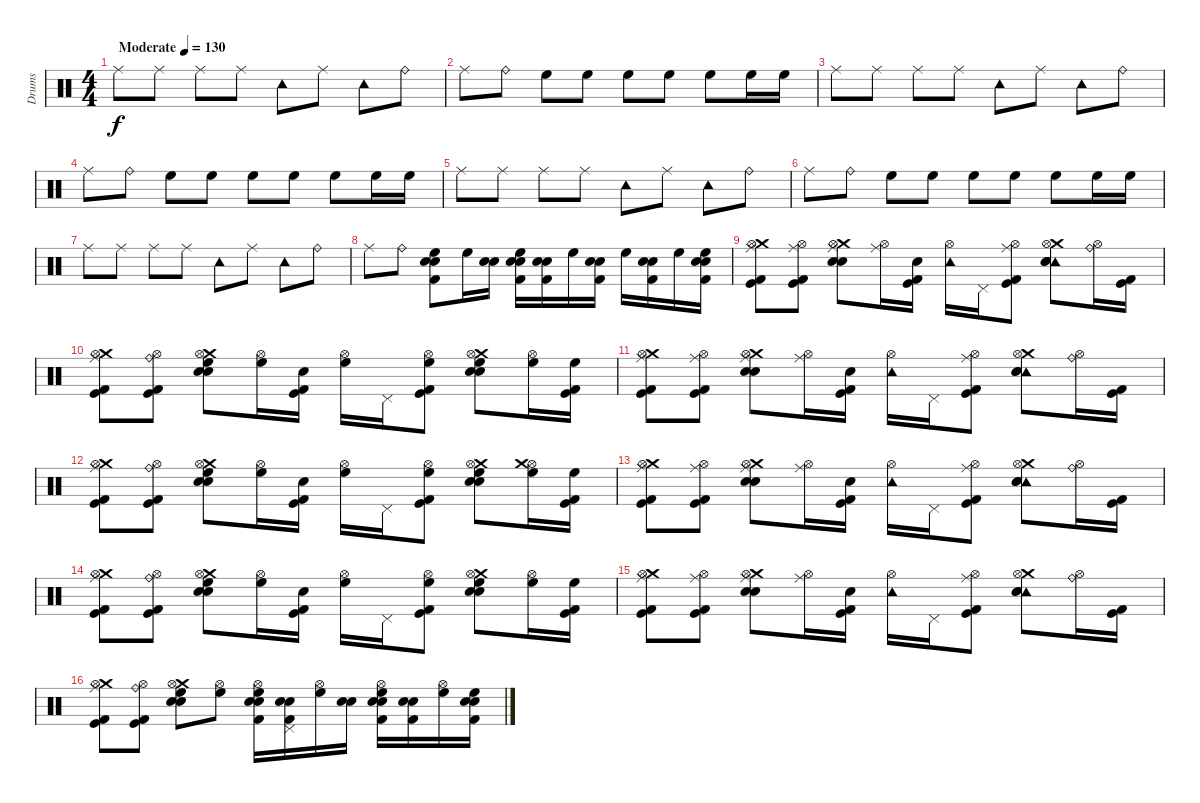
\track ("Drums" "Drums") {instrument percussion}
\staff {score}
\articulation defaults
\ts (4 4)
\tempo (130 "Moderate")
\clef neutral
\ks c "Ride (middle)".8{dy f} "Ride (middle)".8 "Ride (middle)".8 "Ride (middle)".8 "Tambourine (hit)".8 "Ride (middle)".8 "Tambourine (hit)".8 "Ride (bell)".8
|
"Ride (middle)".8 "Ride (bell)".8 "High Floor Tom (hit)".8 "High Floor Tom (hit)".8 "High Floor Tom (hit)".8 "High Floor Tom (hit)".8 "High Floor Tom (hit)".8 "High Floor Tom (hit)".16 "High Floor Tom (hit)".16 |
"Ride (middle)".8 "Ride (middle)".8 "Ride (middle)".8 "Ride (middle)".8 "Tambourine (hit)".8 "Ride (middle)".8 "Tambourine (hit)".8 "Ride (bell)".8 |
"Ride (middle)".8 "Ride (bell)".8 "High Floor Tom (hit)".8 "High Floor Tom (hit)".8 "High Floor Tom (hit)".8 "High Floor Tom (hit)".8 "High Floor Tom (hit)".8 "High Floor Tom (hit)".16 "High Floor Tom (hit)".16 |
"Ride (middle)".8 "Ride (middle)".8 "Ride (middle)".8 "Ride (middle)".8 "Tambourine (hit)".8 "Ride (middle)".8 "Tambourine (hit)".8 "Ride (bell)".8 |
"Ride (middle)".8 "Ride (bell)".8 "High Floor Tom (hit)".8 "High Floor Tom (hit)".8 "High Floor Tom (hit)".8 "High Floor Tom (hit)".8 "High Floor Tom (hit)".8 "High Floor Tom (hit)".16 "High Floor Tom (hit)".16 |
"Ride (middle)".8 "Ride (middle)".8 "Ride (middle)".8 "Ride (middle)".8 "Tambourine (hit)".8 "Ride (middle)".8 "Tambourine (hit)".8 "Ride (bell)".8 |
"Ride (middle)".8 "Ride (bell)".8 ("High Floor Tom (hit)" "Electric Snare (hit)" "Snare (hit) 2" "Kick (hit) 2").8 "High Floor Tom (hit)".16 ("Electric Snare (hit)" "Electric Snare (hit)").16 ("High Floor Tom (hit)" "Snare (hit) 2" "Electric Snare (hit)" "Kick (hit) 2").16 ("Electric Snare (hit)" "Snare (hit) 2" "Kick (hit) 2").16 "High Floor Tom (hit)".16 ("Electric Snare (hit)" "Snare (hit) 2" "Kick (hit) 2").16 "High Floor Tom (hit)".16 ("Electric Snare (hit)" "Snare (hit) 2" "Kick (hit) 2").16 "High Floor Tom (hit)".16 ("High Floor Tom (hit)" "Electric Snare (hit)" "Snare (hit) 2" "Kick (hit) 2").16 |
("Ride (middle)" "Kick (hit) 2" "Kick (hit)" "Crash medium (hit)" "Hi-Hat (open)").8 ("Ride (middle)" "Kick (hit) 2" "Kick (hit)" "Hi-Hat (open)").8 ("Ride (middle)" "Snare (hit) 2" "Electric Snare (hit)" "Crash medium (hit)" "Hi-Hat (open)").8 ("Ride (middle)" "Hi-Hat (open)").16 ("Kick (hit) 2" "Kick (hit)" "Electric Snare (hit)").16 ("Tambourine (hit)" "Hi-Hat (open)").16 "Pedal Hi-Hat (hit)".16 ("Ride (middle)" "Kick (hit) 2" "Kick (hit)" "Hi-Hat (open)").8 ("Tambourine (hit)" "Snare (hit) 2" "Electric Snare (hit)" "Crash medium (hit)" "Hi-Hat (open)").8 ("Ride (bell)" "Hi-Hat (open)").16 ("Kick (hit) 2" "Kick (hit)").16 |
("Ride (middle)" "Kick (hit) 2" "Kick (hit)" "Crash medium (hit)" "Hi-Hat (open)").8 ("Ride (bell)" "Kick (hit) 2" "Kick (hit)" "Hi-Hat (open)").8 ("High Floor Tom (hit)" "Snare (hit) 2" "Electric Snare (hit)" "Crash medium (hit)" "Hi-Hat (open)").8 ("High Floor Tom (hit)" "Hi-Hat (open)").16 ("Kick (hit) 2" "Kick (hit)" "Electric Snare (hit)").16 ("High Floor Tom (hit)" "Hi-Hat (open)").16 "Pedal Hi-Hat (hit)".16 ("High Floor Tom (hit)" "Kick (hit) 2" "Kick (hit)" "Hi-Hat (open)").8 ("High Floor Tom (hit)" "Snare (hit) 2" "Electric Snare (hit)" "Crash medium (hit)" "Hi-Hat (open)").8 ("High Floor Tom (hit)" "Hi-Hat (open)").16 ("High Floor Tom (hit)" "Kick (hit) 2" "Kick (hit)").16 |
("Ride (middle)" "Kick (hit) 2" "Kick (hit)" "Crash medium (hit)" "Hi-Hat (open)").8 ("Ride (middle)" "Kick (hit) 2" "Kick (hit)" "Hi-Hat (open)").8 ("Ride (middle)" "Snare (hit) 2" "Electric Snare (hit)" "Crash medium (hit)" "Hi-Hat (open)").8 ("Ride (middle)" "Hi-Hat (open)").16 ("Kick (hit) 2" "Kick (hit)" "Electric Snare (hit)").16 ("Tambourine (hit)" "Hi-Hat (open)").16 "Pedal Hi-Hat (hit)".16 ("Ride (middle)" "Kick (hit) 2" "Kick (hit)" "Hi-Hat (open)").8 ("Tambourine (hit)" "Snare (hit) 2" "Electric Snare (hit)" "Crash medium (hit)" "Hi-Hat (open)").8 ("Ride (bell)" "Hi-Hat (open)").16 ("Kick (hit) 2" "Kick (hit)").16 |
("Ride (middle)" "Kick (hit) 2" "Kick (hit)" "Crash medium (hit)" "Hi-Hat (open)").8 ("Ride (bell)" "Kick (hit) 2" "Kick (hit)" "Hi-Hat (open)").8 ("High Floor Tom (hit)" "Snare (hit) 2" "Electric Snare (hit)" "Crash medium (hit)" "Hi-Hat (open)").8 ("High Floor Tom (hit)" "Hi-Hat (open)").16 ("Kick (hit) 2" "Kick (hit)" "Electric Snare (hit)").16 ("High Floor Tom (hit)" "Hi-Hat (open)").16 "Pedal Hi-Hat (hit)".16 ("High Floor Tom (hit)" "Kick (hit) 2" "Kick (hit)" "Hi-Hat (open)").8 ("High Floor Tom (hit)" "Snare (hit) 2" "Electric Snare (hit)" "Crash medium (hit)" "Hi-Hat (open)").8 ("High Floor Tom (hit)" "Hi-Hat (open)" "Crash medium (hit)").16 ("High Floor Tom (hit)" "Kick (hit) 2" "Kick (hit)").16 |
("Ride (middle)" "Kick (hit) 2" "Kick (hit)" "Crash medium (hit)" "Hi-Hat (open)").8 ("Ride (middle)" "Kick (hit) 2" "Kick (hit)" "Hi-Hat (open)").8 ("Ride (middle)" "Snare (hit) 2" "Electric Snare (hit)" "Crash medium (hit)" "Hi-Hat (open)").8 ("Ride (middle)" "Hi-Hat (open)").16 ("Kick (hit) 2" "Kick (hit)" "Electric Snare (hit)").16 ("Tambourine (hit)" "Hi-Hat (open)").16 "Pedal Hi-Hat (hit)".16 ("Ride (middle)" "Kick (hit) 2" "Kick (hit)" "Hi-Hat (open)").8 ("Tambourine (hit)" "Snare (hit) 2" "Electric Snare (hit)" "Crash medium (hit)" "Hi-Hat (open)").8 ("Ride (bell)" "Hi-Hat (open)").16 ("Kick (hit) 2" "Kick (hit)").16 |
("Ride (middle)" "Kick (hit) 2" "Kick (hit)" "Crash medium (hit)" "Hi-Hat (open)").8 ("Ride (bell)" "Kick (hit) 2" "Kick (hit)" "Hi-Hat (open)").8 ("High Floor Tom (hit)" "Snare (hit) 2" "Electric Snare (hit)" "Crash medium (hit)" "Hi-Hat (open)").8 ("High Floor Tom (hit)" "Hi-Hat (open)").16 ("Kick (hit) 2" "Kick (hit)" "Electric Snare (hit)").16 ("High Floor Tom (hit)" "Hi-Hat (open)").16 "Pedal Hi-Hat (hit)".16 ("High Floor Tom (hit)" "Kick (hit) 2" "Kick (hit)" "Hi-Hat (open)").8 ("High Floor Tom (hit)" "Snare (hit) 2" "Electric Snare (hit)" "Crash medium (hit)" "Hi-Hat (open)").8 ("High Floor Tom (hit)" "Hi-Hat (open)").16 ("High Floor Tom (hit)" "Kick (hit) 2" "Kick (hit)").16 |
("Ride (middle)" "Kick (hit) 2" "Kick (hit)" "Crash medium (hit)" "Hi-Hat (open)").8 ("Ride (middle)" "Kick (hit) 2" "Kick (hit)" "Hi-Hat (open)").8 ("Ride (middle)" "Snare (hit) 2" "Electric Snare (hit)" "Crash medium (hit)" "Hi-Hat (open)").8 ("Ride (middle)" "Hi-Hat (open)").16 ("Kick (hit) 2" "Kick (hit)" "Electric Snare (hit)").16 ("Tambourine (hit)" "Hi-Hat (open)").16 "Pedal Hi-Hat (hit)".16 ("Ride (middle)" "Kick (hit) 2" "Kick (hit)" "Hi-Hat (open)").8 ("Tambourine (hit)" "Snare (hit) 2" "Electric Snare (hit)" "Crash medium (hit)" "Hi-Hat (open)").8 ("Ride (bell)" "Hi-Hat (open)").16 ("Kick (hit) 2" "Kick (hit)").16 |
("Ride (middle)" "Kick (hit) 2" "Kick (hit)" "Crash medium (hit)" "Hi-Hat (open)").8 ("Ride (bell)" "Kick (hit) 2" "Kick (hit)" "Hi-Hat (open)").8 ("High Floor Tom (hit)" "Snare (hit) 2" "Electric Snare (hit)" "Crash medium (hit)" "Hi-Hat (open)").8 ("High Floor Tom (hit)" "Hi-Hat (open)").8 ("High Floor Tom (hit)" "Hi-Hat (open)" "Electric Snare (hit)" "Snare (hit) 2" "Kick (hit) 2").16 ("Electric Snare (hit)" "Snare (hit) 2" "Kick (hit) 2" "Pedal Hi-Hat (hit)").16 ("High Floor Tom (hit)" "Hi-Hat (open)").16 ("Electric Snare (hit)" "Electric Snare (hit)").16 ("High Floor Tom (hit)" "Hi-Hat (open)" "Snare (hit) 2" "Electric Snare (hit)" "Kick (hit) 2").16 ("Electric Snare (hit)" "Snare (hit) 2" "Kick (hit) 2").16 ("High Floor Tom (hit)" "Hi-Hat (open)").16 ("High Floor Tom (hit)" "Electric Snare (hit)" "Snare (hit) 2" "Kick (hit) 2").16
